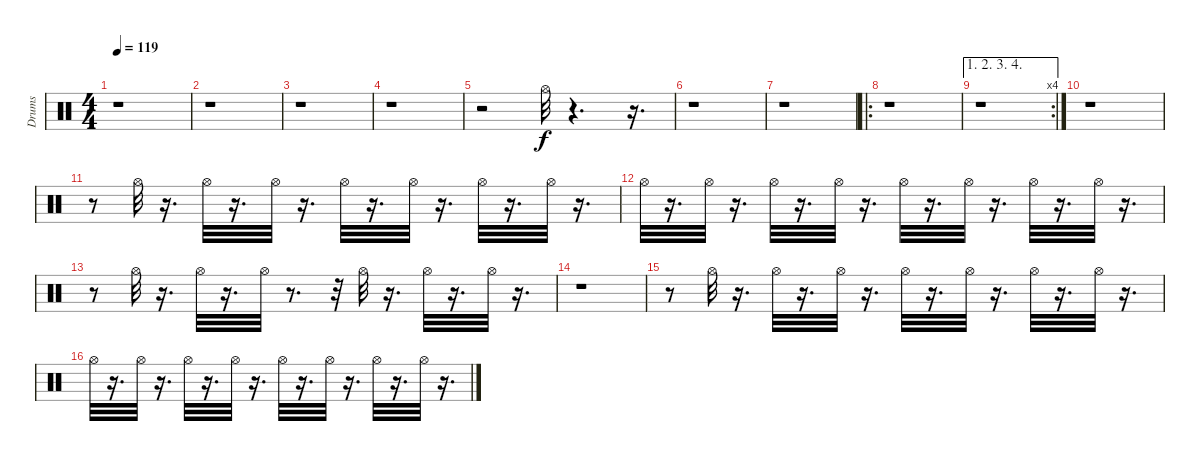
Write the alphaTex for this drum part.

\track ("Drums" "Drums") {instrument percussion}
\staff {score}
\articulation defaults
\ts (4 4)
\tempo 119
\clef neutral
\ks c
r.1{dy f} |
r.1 |
r.1 |
r.1 |
r.2 "Hi-Hat (open)".32 r.4{d} r.16{d} |
r.1 |
r.1 |
\ro
r.1 |
\ae (1 2 3 4)
\rc 4
r.1 |
r.1 |
r.8 "Hi-Hat (open)".32 r.16{d} "Hi-Hat (open)".32 r.16{d} "Hi-Hat (open)".32 r.16{d} "Hi-Hat (open)".32 r.16{d} "Hi-Hat (open)".32 r.16{d} "Hi-Hat (open)".32 r.16{d} "Hi-Hat (open)".32 r.16{d} |
"Hi-Hat (open)".32 r.16{d} "Hi-Hat (open)".32 r.16{d} "Hi-Hat (open)".32 r.16{d} "Hi-Hat (open)".32 r.16{d} "Hi-Hat (open)".32 r.16{d} "Hi-Hat (open)".32 r.16{d} "Hi-Hat (open)".32 r.16{d} "Hi-Hat (open)".32 r.16{d} |
r.8 "Hi-Hat (open)".32 r.16{d} "Hi-Hat (open)".32 r.16{d} "Hi-Hat (open)".32 r.8{d} r.32 "Hi-Hat (open)".32 r.16{d} "Hi-Hat (open)".32 r.16{d} "Hi-Hat (open)".32 r.16{d} |
r.1 |
r.8 "Hi-Hat (open)".32 r.16{d} "Hi-Hat (open)".32 r.16{d} "Hi-Hat (open)".32 r.16{d} "Hi-Hat (open)".32 r.16{d} "Hi-Hat (open)".32 r.16{d} "Hi-Hat (open)".32 r.16{d} "Hi-Hat (open)".32 r.16{d} |
"Hi-Hat (open)".32 r.16{d} "Hi-Hat (open)".32 r.16{d} "Hi-Hat (open)".32 r.16{d} "Hi-Hat (open)".32 r.16{d} "Hi-Hat (open)".32 r.16{d} "Hi-Hat (open)".32 r.16{d} "Hi-Hat (open)".32 r.16{d} "Hi-Hat (open)".32 r.16{d}
